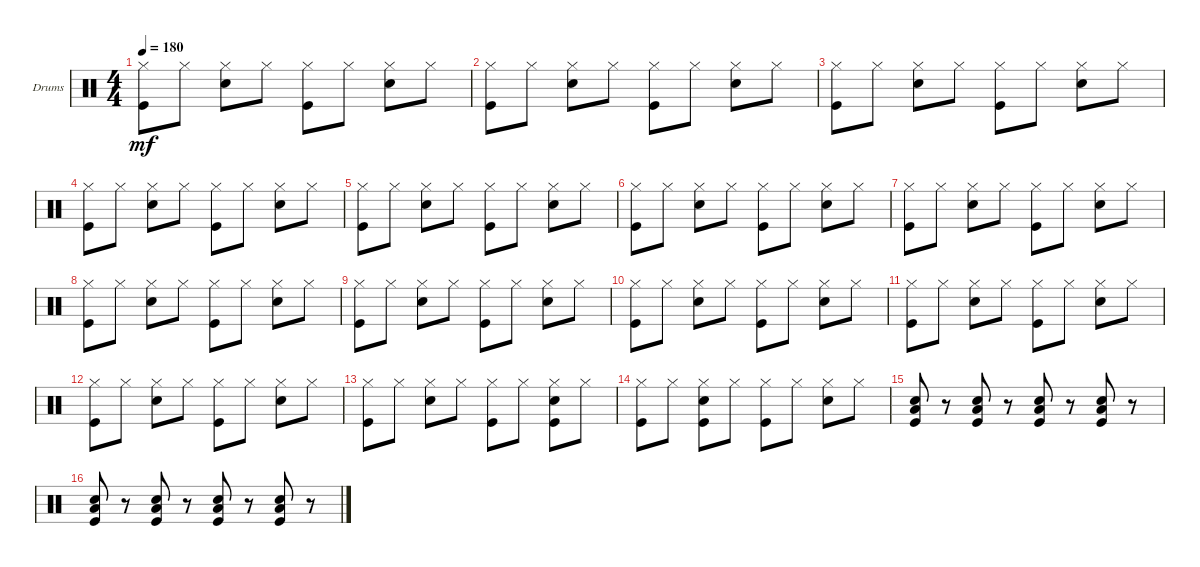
\bracketExtendMode groupsimilarinstruments
\firstSystemTrackNameOrientation horizontal
\otherSystemsTrackNameOrientation horizontal
\track ("Drumkit" "Drums") {instrument percussion}
\staff {score}
\articulation defaults
\ts (4 4)
\tempo 180
\clef neutral
\ks c
("Hi-Hat (closed)" "Kick (hit)").8{dy mf} "Hi-Hat (closed)".8 ("Hi-Hat (closed)" "Snare (hit) 2").8 "Hi-Hat (closed)".8 ("Hi-Hat (closed)" "Kick (hit)").8 "Hi-Hat (closed)".8 ("Hi-Hat (closed)" "Snare (hit) 2").8 "Hi-Hat (closed)".8 |
("Hi-Hat (closed)" "Kick (hit)").8 "Hi-Hat (closed)".8 ("Hi-Hat (closed)" "Snare (hit) 2").8 "Hi-Hat (closed)".8 ("Hi-Hat (closed)" "Kick (hit)").8 "Hi-Hat (closed)".8 ("Hi-Hat (closed)" "Snare (hit) 2").8 "Hi-Hat (closed)".8 |
("Hi-Hat (closed)" "Kick (hit)").8 "Hi-Hat (closed)".8 ("Hi-Hat (closed)" "Snare (hit) 2").8 "Hi-Hat (closed)".8 ("Hi-Hat (closed)" "Kick (hit)").8 "Hi-Hat (closed)".8 ("Hi-Hat (closed)" "Snare (hit) 2").8 "Hi-Hat (closed)".8 |
("Hi-Hat (closed)" "Kick (hit)").8 "Hi-Hat (closed)".8 ("Hi-Hat (closed)" "Snare (hit) 2").8 "Hi-Hat (closed)".8 ("Hi-Hat (closed)" "Kick (hit)").8 "Hi-Hat (closed)".8 ("Hi-Hat (closed)" "Snare (hit) 2").8 "Hi-Hat (closed)".8 |
("Hi-Hat (closed)" "Kick (hit)").8 "Hi-Hat (closed)".8 ("Hi-Hat (closed)" "Snare (hit) 2").8 "Hi-Hat (closed)".8 ("Hi-Hat (closed)" "Kick (hit)").8 "Hi-Hat (closed)".8 ("Hi-Hat (closed)" "Snare (hit) 2").8 "Hi-Hat (closed)".8 |
("Hi-Hat (closed)" "Kick (hit)").8 "Hi-Hat (closed)".8 ("Hi-Hat (closed)" "Snare (hit) 2").8 "Hi-Hat (closed)".8 ("Hi-Hat (closed)" "Kick (hit)").8 "Hi-Hat (closed)".8 ("Hi-Hat (closed)" "Snare (hit) 2").8 "Hi-Hat (closed)".8 |
("Hi-Hat (closed)" "Kick (hit)").8 "Hi-Hat (closed)".8 ("Hi-Hat (closed)" "Snare (hit) 2").8 "Hi-Hat (closed)".8 ("Hi-Hat (closed)" "Kick (hit)").8 "Hi-Hat (closed)".8 ("Hi-Hat (closed)" "Snare (hit) 2").8 "Hi-Hat (closed)".8 |
("Hi-Hat (closed)" "Kick (hit)").8 "Hi-Hat (closed)".8 ("Hi-Hat (closed)" "Snare (hit) 2").8 "Hi-Hat (closed)".8 ("Hi-Hat (closed)" "Kick (hit)").8 "Hi-Hat (closed)".8 ("Hi-Hat (closed)" "Snare (hit) 2").8 "Hi-Hat (closed)".8 |
("Hi-Hat (closed)" "Kick (hit)").8 "Hi-Hat (closed)".8 ("Hi-Hat (closed)" "Snare (hit) 2").8 "Hi-Hat (closed)".8 ("Hi-Hat (closed)" "Kick (hit)").8 "Hi-Hat (closed)".8 ("Hi-Hat (closed)" "Snare (hit) 2").8 "Hi-Hat (closed)".8 |
("Hi-Hat (closed)" "Kick (hit)").8 "Hi-Hat (closed)".8 ("Hi-Hat (closed)" "Snare (hit) 2").8 "Hi-Hat (closed)".8 ("Hi-Hat (closed)" "Kick (hit)").8 "Hi-Hat (closed)".8 ("Hi-Hat (closed)" "Snare (hit) 2").8 "Hi-Hat (closed)".8 |
("Hi-Hat (closed)" "Kick (hit)").8 "Hi-Hat (closed)".8 ("Hi-Hat (closed)" "Snare (hit) 2").8 "Hi-Hat (closed)".8 ("Hi-Hat (closed)" "Kick (hit)").8 "Hi-Hat (closed)".8 ("Hi-Hat (closed)" "Snare (hit) 2").8 "Hi-Hat (closed)".8 |
("Hi-Hat (closed)" "Kick (hit)").8 "Hi-Hat (closed)".8 ("Hi-Hat (closed)" "Snare (hit) 2").8 "Hi-Hat (closed)".8 ("Hi-Hat (closed)" "Kick (hit)").8 "Hi-Hat (closed)".8 ("Hi-Hat (closed)" "Snare (hit) 2").8 "Hi-Hat (closed)".8 |
("Hi-Hat (closed)" "Kick (hit)").8 "Hi-Hat (closed)".8 ("Hi-Hat (closed)" "Snare (hit) 2").8 "Hi-Hat (closed)".8 ("Hi-Hat (closed)" "Kick (hit)").8 "Hi-Hat (closed)".8 ("Hi-Hat (closed)" "Snare (hit) 2" "Kick (hit)").8 "Hi-Hat (closed)".8 |
("Hi-Hat (closed)" "Kick (hit)").8 "Hi-Hat (closed)".8 ("Hi-Hat (closed)" "Snare (hit) 2" "Kick (hit)").8 "Hi-Hat (closed)".8 ("Hi-Hat (closed)" "Kick (hit)").8 "Hi-Hat (closed)".8 ("Hi-Hat (closed)" "Snare (hit) 2").8 "Hi-Hat (closed)".8 |
("Kick (hit)" "Snare (hit) 2" "Low Tom (hit)").8 r.8 ("Kick (hit)" "Snare (hit) 2" "Low Tom (hit)").8 r.8 ("Kick (hit)" "Snare (hit) 2" "Low Tom (hit)").8 r.8 ("Kick (hit)" "Snare (hit) 2" "Low Tom (hit)").8 r.8 |
("Kick (hit)" "Snare (hit) 2" "Low Tom (hit)").8 r.8 ("Kick (hit)" "Snare (hit) 2" "Low Tom (hit)").8 r.8 ("Kick (hit)" "Snare (hit) 2" "Low Tom (hit)").8 r.8 ("Kick (hit)" "Snare (hit) 2" "Low Tom (hit)").8 r.8
